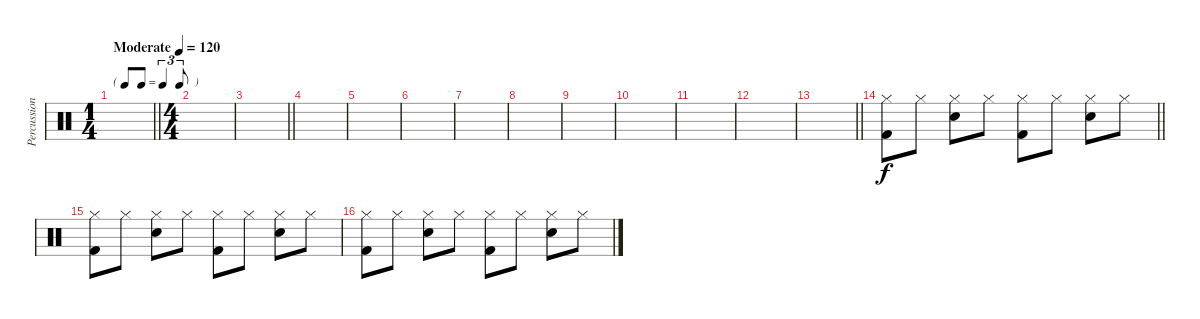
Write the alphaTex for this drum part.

\track ("Percussion" "Percussion") {instrument percussion}
\staff {score}
\articulation defaults
\ts (1 4)
\tf triplet8th
\tempo (120 "Moderate")
\clef neutral
\barLineRight lightlight
\ks c
|
\ts (4 4)
|
\barLineRight lightlight
|
|
|
|
|
|
|
|
|
|
\barLineRight lightlight
|
\barLineRight lightlight
("Hi-Hat (closed)" "Kick (hit) 2").8 "Hi-Hat (closed)".8 ("Hi-Hat (closed)" "Snare (hit) 2").8 "Hi-Hat (closed)".8 ("Hi-Hat (closed)" "Kick (hit) 2").8 "Hi-Hat (closed)".8 ("Hi-Hat (closed)" "Snare (hit) 2").8 "Hi-Hat (closed)".8 |
("Hi-Hat (closed)" "Kick (hit) 2").8 "Hi-Hat (closed)".8 ("Hi-Hat (closed)" "Snare (hit) 2").8 "Hi-Hat (closed)".8 ("Hi-Hat (closed)" "Kick (hit) 2").8 "Hi-Hat (closed)".8 ("Hi-Hat (closed)" "Snare (hit) 2").8 "Hi-Hat (closed)".8 |
("Hi-Hat (closed)" "Kick (hit) 2").8 "Hi-Hat (closed)".8 ("Hi-Hat (closed)" "Snare (hit) 2").8 "Hi-Hat (closed)".8 ("Hi-Hat (closed)" "Kick (hit) 2").8 "Hi-Hat (closed)".8 ("Hi-Hat (closed)" "Snare (hit) 2").8 "Hi-Hat (closed)".8
